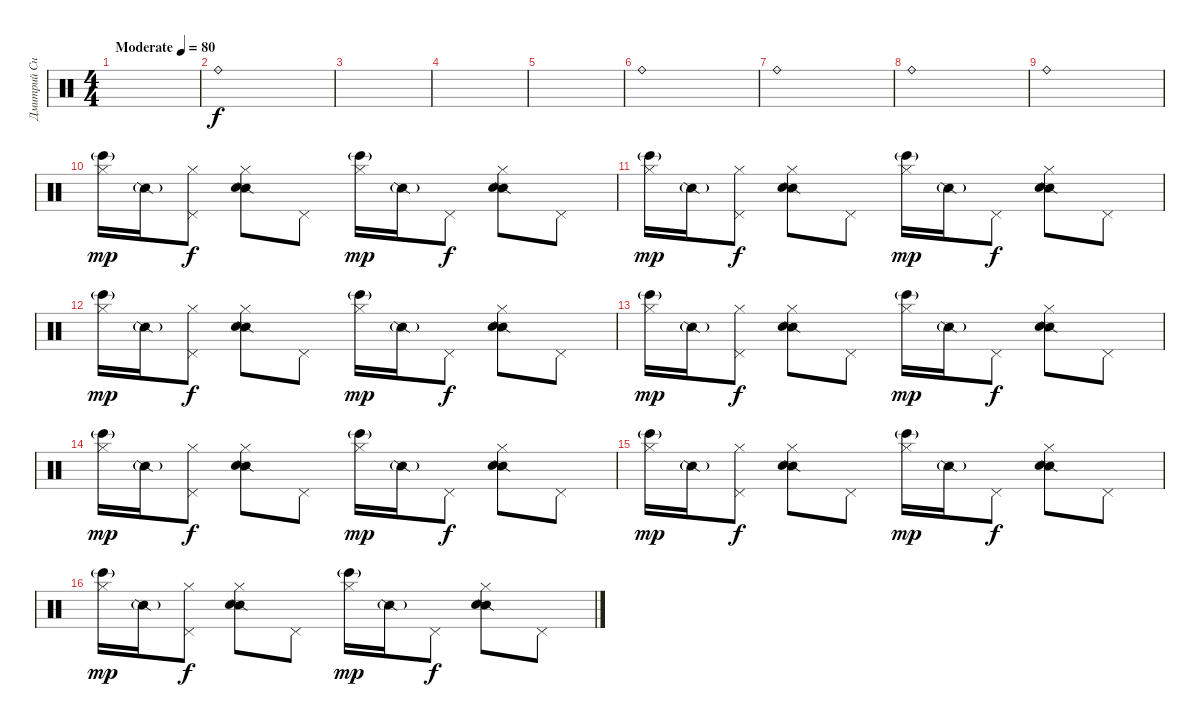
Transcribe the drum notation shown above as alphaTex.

\track ("Дмитрий Снэйк" "Дмитрий Сн") {instrument percussion}
\staff {score}
\articulation defaults
\ts (4 4)
\tempo (80 "Moderate")
\clef neutral
\ks c
|
"Ride (bell)".1 |
|
|
|
"Ride (bell)".1 |
"Ride (bell)".1 |
"Ride (bell)".1 |
"Ride (bell)".1 |
("Hi-Hat (closed)" "Bongo High (hit)"{g}).16{dy mp} "Snare (side stick) 2"{g}.16 ("Pedal Hi-Hat (hit)" "Hi-Hat (closed)").8{dy f} ("Hi-Hat (closed)" "Snare (side stick) 2" "Snare (hit) 2").8 "Pedal Hi-Hat (hit)".8 ("Hi-Hat (closed)" "Bongo High (hit)"{g}).16{dy mp} "Snare (side stick) 2"{g}.16 "Pedal Hi-Hat (hit)".8{dy f} ("Hi-Hat (closed)" "Snare (side stick) 2" "Snare (hit) 2").8 "Pedal Hi-Hat (hit)".8 |
("Hi-Hat (closed)" "Bongo High (hit)"{g}).16{dy mp} "Snare (side stick) 2"{g}.16 ("Pedal Hi-Hat (hit)" "Hi-Hat (closed)").8{dy f} ("Hi-Hat (closed)" "Snare (side stick) 2" "Snare (hit) 2").8 "Pedal Hi-Hat (hit)".8 ("Hi-Hat (closed)" "Bongo High (hit)"{g}).16{dy mp} "Snare (side stick) 2"{g}.16 "Pedal Hi-Hat (hit)".8{dy f} ("Hi-Hat (closed)" "Snare (side stick) 2" "Snare (hit) 2").8 "Pedal Hi-Hat (hit)".8 |
("Hi-Hat (closed)" "Bongo High (hit)"{g}).16{dy mp} "Snare (side stick) 2"{g}.16 ("Pedal Hi-Hat (hit)" "Hi-Hat (closed)").8{dy f} ("Hi-Hat (closed)" "Snare (side stick) 2" "Snare (hit) 2").8 "Pedal Hi-Hat (hit)".8 ("Hi-Hat (closed)" "Bongo High (hit)"{g}).16{dy mp} "Snare (side stick) 2"{g}.16 "Pedal Hi-Hat (hit)".8{dy f} ("Hi-Hat (closed)" "Snare (side stick) 2" "Snare (hit) 2").8 "Pedal Hi-Hat (hit)".8 |
("Hi-Hat (closed)" "Bongo High (hit)"{g}).16{dy mp} "Snare (side stick) 2"{g}.16 ("Pedal Hi-Hat (hit)" "Hi-Hat (closed)").8{dy f} ("Hi-Hat (closed)" "Snare (side stick) 2" "Snare (hit) 2").8 "Pedal Hi-Hat (hit)".8 ("Hi-Hat (closed)" "Bongo High (hit)"{g}).16{dy mp} "Snare (side stick) 2"{g}.16 "Pedal Hi-Hat (hit)".8{dy f} ("Hi-Hat (closed)" "Snare (side stick) 2" "Snare (hit) 2").8 "Pedal Hi-Hat (hit)".8 |
("Hi-Hat (closed)" "Bongo High (hit)"{g}).16{dy mp} "Snare (side stick) 2"{g}.16 ("Pedal Hi-Hat (hit)" "Hi-Hat (closed)").8{dy f} ("Hi-Hat (closed)" "Snare (side stick) 2" "Snare (hit) 2").8 "Pedal Hi-Hat (hit)".8 ("Hi-Hat (closed)" "Bongo High (hit)"{g}).16{dy mp} "Snare (side stick) 2"{g}.16 "Pedal Hi-Hat (hit)".8{dy f} ("Hi-Hat (closed)" "Snare (side stick) 2" "Snare (hit) 2").8 "Pedal Hi-Hat (hit)".8 |
("Hi-Hat (closed)" "Bongo High (hit)"{g}).16{dy mp} "Snare (side stick) 2"{g}.16 ("Pedal Hi-Hat (hit)" "Hi-Hat (closed)").8{dy f} ("Hi-Hat (closed)" "Snare (side stick) 2" "Snare (hit) 2").8 "Pedal Hi-Hat (hit)".8 ("Hi-Hat (closed)" "Bongo High (hit)"{g}).16{dy mp} "Snare (side stick) 2"{g}.16 "Pedal Hi-Hat (hit)".8{dy f} ("Hi-Hat (closed)" "Snare (side stick) 2" "Snare (hit) 2").8 "Pedal Hi-Hat (hit)".8 |
("Hi-Hat (closed)" "Bongo High (hit)"{g}).16{dy mp} "Snare (side stick) 2"{g}.16 ("Pedal Hi-Hat (hit)" "Hi-Hat (closed)").8{dy f} ("Hi-Hat (closed)" "Snare (side stick) 2" "Snare (hit) 2").8 "Pedal Hi-Hat (hit)".8 ("Hi-Hat (closed)" "Bongo High (hit)"{g}).16{dy mp} "Snare (side stick) 2"{g}.16 "Pedal Hi-Hat (hit)".8{dy f} ("Hi-Hat (closed)" "Snare (side stick) 2" "Snare (hit) 2").8 "Pedal Hi-Hat (hit)".8
